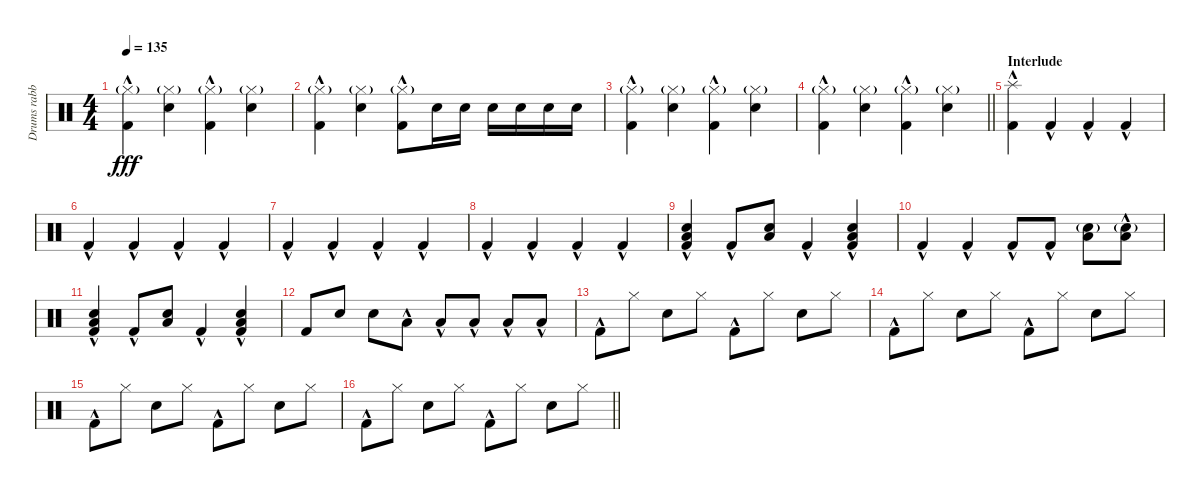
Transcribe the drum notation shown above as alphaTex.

\track ("Drums rabbit" "Drums rabb") {instrument percussion}
\staff {score}
\articulation defaults
\ts (4 4)
\tempo 135
\clef neutral
\ks c
("Kick (hit) 2"{hac} "Hi-Hat (closed)"{g}).4{dy fff} ("Electric Snare (hit)" "Hi-Hat (closed)"{g}).4 ("Kick (hit) 2"{hac} "Hi-Hat (closed)"{g}).4 ("Electric Snare (hit)" "Hi-Hat (closed)"{g}).4 |
("Kick (hit) 2"{hac} "Hi-Hat (closed)"{g}).4 ("Electric Snare (hit)" "Hi-Hat (closed)"{g}).4 ("Kick (hit) 2"{hac} "Hi-Hat (closed)"{g}).8 "Electric Snare (hit)".16 "Electric Snare (hit)".16 "Electric Snare (hit)".16 "Electric Snare (hit)".16 "Electric Snare (hit)".16 "Electric Snare (hit)".16 |
("Kick (hit) 2"{hac} "Hi-Hat (closed)"{g}).4 ("Electric Snare (hit)" "Hi-Hat (closed)"{g}).4 ("Kick (hit) 2"{hac} "Hi-Hat (closed)"{g}).4 ("Electric Snare (hit)" "Hi-Hat (closed)"{g}).4 |
\barLineRight lightlight
("Kick (hit) 2"{hac} "Hi-Hat (closed)"{g}).4 ("Electric Snare (hit)" "Hi-Hat (closed)"{g}).4 ("Kick (hit) 2"{hac} "Hi-Hat (closed)"{g}).4 ("Electric Snare (hit)" "Hi-Hat (closed)"{g}).4 |
\section ("" "Interlude")
("Kick (hit) 2"{hac} "Splash (hit)").4 "Kick (hit) 2"{hac}.4 "Kick (hit) 2"{hac}.4 "Kick (hit) 2"{hac}.4 |
"Kick (hit) 2"{hac}.4 "Kick (hit) 2"{hac}.4 "Kick (hit) 2"{hac}.4 "Kick (hit) 2"{hac}.4 |
"Kick (hit) 2"{hac}.4 "Kick (hit) 2"{hac}.4 "Kick (hit) 2"{hac}.4 "Kick (hit) 2"{hac}.4 |
"Kick (hit) 2"{hac}.4 "Kick (hit) 2"{hac}.4 "Kick (hit) 2"{hac}.4 "Kick (hit) 2"{hac}.4 |
("Kick (hit) 2"{hac} "Electric Snare (hit)" "Low Floor Tom (hit)").4 "Kick (hit) 2"{hac}.8 ("Electric Snare (hit)" "Low Floor Tom (hit)").8 "Kick (hit) 2"{hac}.4 ("Kick (hit) 2"{hac} "Electric Snare (hit)" "Low Floor Tom (hit)").4 |
"Kick (hit) 2"{hac}.4 "Kick (hit) 2"{hac}.4 "Kick (hit) 2"{hac}.8 "Kick (hit) 2"{hac}.8 ("Low Floor Tom (hit)" "Electric Snare (hit)"{g}).8 ("Electric Snare (hit)"{g} "Low Floor Tom (hit)"{hac}).8 |
("Kick (hit) 2"{hac} "Electric Snare (hit)" "Low Floor Tom (hit)").4 "Kick (hit) 2"{hac}.8 ("Electric Snare (hit)" "Low Floor Tom (hit)").8 "Kick (hit) 2"{hac}.4 ("Kick (hit) 2"{hac} "Electric Snare (hit)" "Low Floor Tom (hit)").4 |
"Kick (hit) 2".8 "Electric Snare (hit)".8 "Electric Snare (hit)".8 "Low Floor Tom (hit)"{hac}.8 "Low Floor Tom (hit)"{hac}.8 "Low Floor Tom (hit)"{hac}.8 "Low Floor Tom (hit)"{hac}.8 "Low Floor Tom (hit)"{hac}.8 |
"Kick (hit) 2"{hac}.8 "Hi-Hat (closed)".8 "Electric Snare (hit)".8 "Hi-Hat (closed)".8 "Kick (hit) 2"{hac}.8 "Hi-Hat (closed)".8 "Electric Snare (hit)".8 "Hi-Hat (closed)".8 |
"Kick (hit) 2"{hac}.8 "Hi-Hat (closed)".8 "Electric Snare (hit)".8 "Hi-Hat (closed)".8 "Kick (hit) 2"{hac}.8 "Hi-Hat (closed)".8 "Electric Snare (hit)".8 "Hi-Hat (closed)".8 |
"Kick (hit) 2"{hac}.8 "Hi-Hat (closed)".8 "Electric Snare (hit)".8 "Hi-Hat (closed)".8 "Kick (hit) 2"{hac}.8 "Hi-Hat (closed)".8 "Electric Snare (hit)".8 "Hi-Hat (closed)".8 |
\barLineRight lightlight "Kick (hit) 2"{hac}.8 "Hi-Hat (closed)".8 "Electric Snare (hit)".8 "Hi-Hat (closed)".8 "Kick (hit) 2"{hac}.8 "Hi-Hat (closed)".8 "Electric Snare (hit)".8 "Hi-Hat (closed)".8
